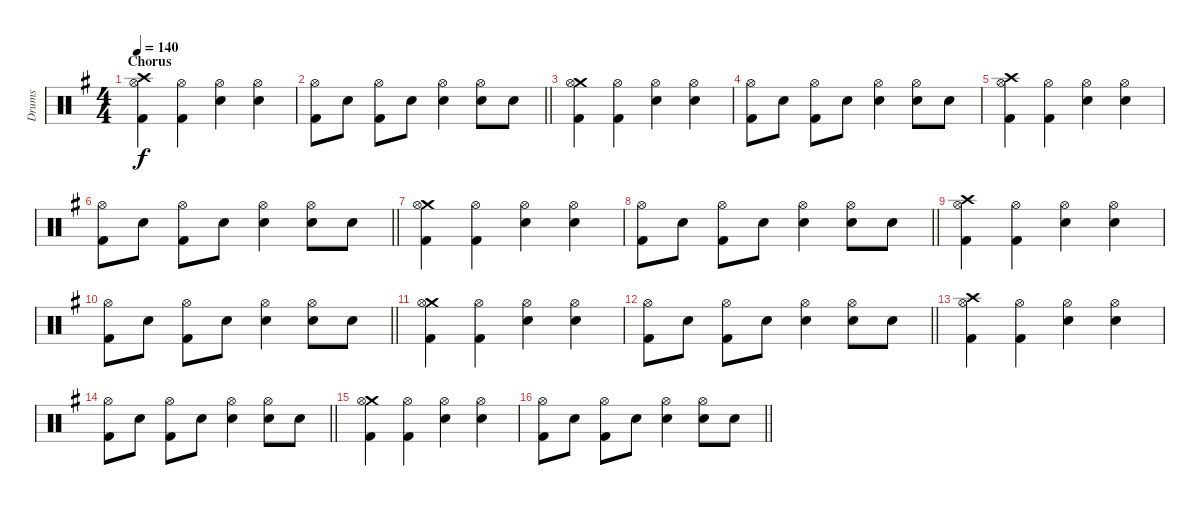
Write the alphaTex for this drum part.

\track ("Drums" "Drums") {instrument percussion}
\staff {score}
\articulation defaults
\ts (4 4)
\section ("" "Chorus")
\tempo 140
\clef neutral
\ks g
("Crash high (hit)" "Hi-Hat (open)" "Kick (hit) 2").4{dy f} ("Hi-Hat (open)" "Kick (hit) 2").4 ("Snare (hit) 2" "Hi-Hat (open)").4 ("Snare (hit) 2" "Hi-Hat (open)").4 |
\barLineRight lightlight
("Kick (hit) 2" "Hi-Hat (open)").8 "Snare (hit) 2".8 ("Kick (hit) 2" "Hi-Hat (open)").8 "Snare (hit) 2".8 ("Snare (hit) 2" "Hi-Hat (open)").4 ("Snare (hit) 2" "Hi-Hat (open)").8 "Snare (hit) 2".8 |
("Crash medium (hit)" "Hi-Hat (open)" "Kick (hit) 2").4 ("Hi-Hat (open)" "Kick (hit) 2").4 ("Snare (hit) 2" "Hi-Hat (open)").4 ("Snare (hit) 2" "Hi-Hat (open)").4 |
("Kick (hit) 2" "Hi-Hat (open)").8 "Snare (hit) 2".8 ("Kick (hit) 2" "Hi-Hat (open)").8 "Snare (hit) 2".8 ("Snare (hit) 2" "Hi-Hat (open)").4 ("Snare (hit) 2" "Hi-Hat (open)").8 "Snare (hit) 2".8 |
("Crash high (hit)" "Hi-Hat (open)" "Kick (hit) 2").4 ("Hi-Hat (open)" "Kick (hit) 2").4 ("Snare (hit) 2" "Hi-Hat (open)").4 ("Snare (hit) 2" "Hi-Hat (open)").4 |
\barLineRight lightlight
("Kick (hit) 2" "Hi-Hat (open)").8 "Snare (hit) 2".8 ("Kick (hit) 2" "Hi-Hat (open)").8 "Snare (hit) 2".8 ("Snare (hit) 2" "Hi-Hat (open)").4 ("Snare (hit) 2" "Hi-Hat (open)").8 "Snare (hit) 2".8 |
("Crash medium (hit)" "Hi-Hat (open)" "Kick (hit) 2").4 ("Hi-Hat (open)" "Kick (hit) 2").4 ("Snare (hit) 2" "Hi-Hat (open)").4 ("Snare (hit) 2" "Hi-Hat (open)").4 |
\barLineRight lightlight
("Kick (hit) 2" "Hi-Hat (open)").8 "Snare (hit) 2".8 ("Kick (hit) 2" "Hi-Hat (open)").8 "Snare (hit) 2".8 ("Snare (hit) 2" "Hi-Hat (open)").4 ("Snare (hit) 2" "Hi-Hat (open)").8 "Snare (hit) 2".8 |
("Crash high (hit)" "Hi-Hat (open)" "Kick (hit) 2").4 ("Hi-Hat (open)" "Kick (hit) 2").4 ("Snare (hit) 2" "Hi-Hat (open)").4 ("Snare (hit) 2" "Hi-Hat (open)").4 |
\barLineRight lightlight
("Kick (hit) 2" "Hi-Hat (open)").8 "Snare (hit) 2".8 ("Kick (hit) 2" "Hi-Hat (open)").8 "Snare (hit) 2".8 ("Snare (hit) 2" "Hi-Hat (open)").4 ("Snare (hit) 2" "Hi-Hat (open)").8 "Snare (hit) 2".8 |
("Crash medium (hit)" "Hi-Hat (open)" "Kick (hit) 2").4 ("Hi-Hat (open)" "Kick (hit) 2").4 ("Snare (hit) 2" "Hi-Hat (open)").4 ("Snare (hit) 2" "Hi-Hat (open)").4 |
\barLineRight lightlight
("Kick (hit) 2" "Hi-Hat (open)").8 "Snare (hit) 2".8 ("Kick (hit) 2" "Hi-Hat (open)").8 "Snare (hit) 2".8 ("Snare (hit) 2" "Hi-Hat (open)").4 ("Snare (hit) 2" "Hi-Hat (open)").8 "Snare (hit) 2".8 |
("Crash high (hit)" "Hi-Hat (open)" "Kick (hit) 2").4 ("Hi-Hat (open)" "Kick (hit) 2").4 ("Snare (hit) 2" "Hi-Hat (open)").4 ("Snare (hit) 2" "Hi-Hat (open)").4 |
\barLineRight lightlight
("Kick (hit) 2" "Hi-Hat (open)").8 "Snare (hit) 2".8 ("Kick (hit) 2" "Hi-Hat (open)").8 "Snare (hit) 2".8 ("Snare (hit) 2" "Hi-Hat (open)").4 ("Snare (hit) 2" "Hi-Hat (open)").8 "Snare (hit) 2".8 |
("Crash medium (hit)" "Hi-Hat (open)" "Kick (hit) 2").4 ("Hi-Hat (open)" "Kick (hit) 2").4 ("Snare (hit) 2" "Hi-Hat (open)").4 ("Snare (hit) 2" "Hi-Hat (open)").4 |
\barLineRight lightlight
("Kick (hit) 2" "Hi-Hat (open)").8 "Snare (hit) 2".8 ("Kick (hit) 2" "Hi-Hat (open)").8 "Snare (hit) 2".8 ("Snare (hit) 2" "Hi-Hat (open)").4 ("Snare (hit) 2" "Hi-Hat (open)").8 "Snare (hit) 2".8
